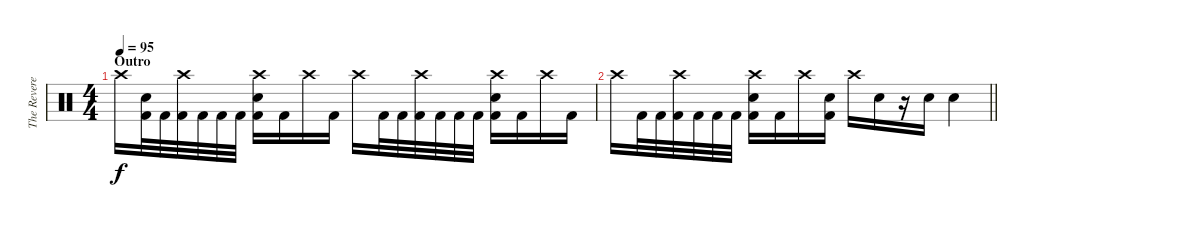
\track ("The Reverend" "The Revere") {instrument percussion}
\staff {score}
\articulation defaults
\ts (4 4)
\section ("" "Outro")
\tempo 95
\clef neutral
\ks c "Crash high (hit)".16{dy f}
("Electric Snare (hit)" "Kick (hit) 2").32 "Kick (hit) 2".32 ("Crash high (hit)" "Kick (hit) 2").32 "Kick (hit) 2".32 "Kick (hit) 2".32 "Kick (hit) 2".32 ("Crash high (hit)" "Electric Snare (hit)" "Kick (hit) 2").16 "Kick (hit) 2".16 "Crash high (hit)".16 "Kick (hit) 2".16 "Crash high (hit)".16 "Kick (hit) 2".32 "Kick (hit) 2".32 ("Crash high (hit)" "Kick (hit) 2").32 "Kick (hit) 2".32 "Kick (hit) 2".32 "Kick (hit) 2".32 ("Crash high (hit)" "Electric Snare (hit)" "Kick (hit) 2").16 "Kick (hit) 2".16 "Crash high (hit)".16 "Kick (hit) 2".16 |
\barLineRight lightlight "Crash high (hit)".16 "Kick (hit) 2".32 "Kick (hit) 2".32
("Crash high (hit)" "Kick (hit) 2").32 "Kick (hit) 2".32 "Kick (hit) 2".32 "Kick (hit) 2".32 ("Crash high (hit)" "Electric Snare (hit)" "Kick (hit) 2").16 "Kick (hit) 2".16 "Crash high (hit)".16 ("Electric Snare (hit)" "Kick (hit) 2").16 "Crash high (hit)".16 "Electric Snare (hit)".16 r.16 "Electric Snare (hit)".16 "Electric Snare (hit)".4
